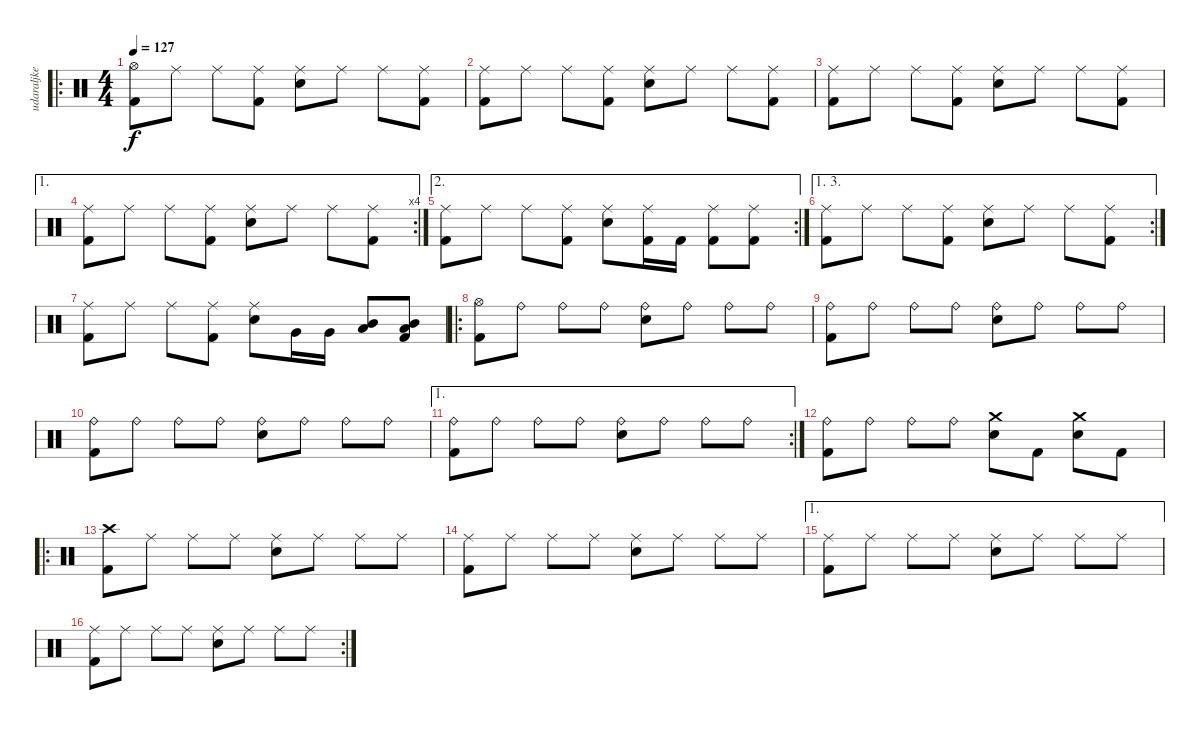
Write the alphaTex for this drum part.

\track ("udaraljke" "udaraljke") {instrument percussion}
\staff {score}
\articulation defaults
\ro
\ts (4 4)
\tempo 127
\clef neutral
\ks c
("Hi-Hat (open)" "Kick (hit) 2").8{dy f} "Ride (middle)".8 "Ride (middle)".8 ("Ride (middle)" "Kick (hit) 2").8 ("Ride (middle)" "Electric Snare (hit)").8 "Ride (middle)".8 "Ride (middle)".8 ("Ride (middle)" "Kick (hit) 2").8 |
("Ride (middle)" "Kick (hit) 2").8 "Ride (middle)".8 "Ride (middle)".8 ("Ride (middle)" "Kick (hit) 2").8 ("Ride (middle)" "Electric Snare (hit)").8 "Ride (middle)".8 "Ride (middle)".8 ("Ride (middle)" "Kick (hit) 2").8 |
("Ride (middle)" "Kick (hit) 2").8 "Ride (middle)".8 "Ride (middle)".8 ("Ride (middle)" "Kick (hit) 2").8 ("Ride (middle)" "Electric Snare (hit)").8 "Ride (middle)".8 "Ride (middle)".8 ("Ride (middle)" "Kick (hit) 2").8 |
\ae 1
\rc 4
("Ride (middle)" "Kick (hit) 2").8 "Ride (middle)".8 "Ride (middle)".8 ("Ride (middle)" "Kick (hit) 2").8 ("Ride (middle)" "Electric Snare (hit)").8 "Ride (middle)".8 "Ride (middle)".8 ("Ride (middle)" "Kick (hit) 2").8 |
\ae 2
\rc 2
("Ride (middle)" "Kick (hit) 2").8 "Ride (middle)".8 "Ride (middle)".8 ("Ride (middle)" "Kick (hit) 2").8 ("Ride (middle)" "Electric Snare (hit)").8 ("Ride (middle)" "Kick (hit) 2").16 "Kick (hit) 2".16 ("Ride (middle)" "Kick (hit) 2").8 ("Ride (middle)" "Kick (hit) 2").8 |
\ae (1 3)
\rc 2
("Ride (middle)" "Kick (hit) 2").8 "Ride (middle)".8 "Ride (middle)".8 ("Ride (middle)" "Kick (hit) 2").8 ("Ride (middle)" "Electric Snare (hit)").8 "Ride (middle)".8 "Ride (middle)".8 ("Ride (middle)" "Kick (hit) 2").8 |
("Ride (middle)" "Kick (hit) 2").8 "Ride (middle)".8 "Ride (middle)".8 ("Ride (middle)" "Kick (hit) 2").8 ("Ride (middle)" "Electric Snare (hit)").8 "Very Low Tom (hit)".16 "Very Low Tom (hit)".16 ("Mid Tom (hit)" "Low Tom (hit)").8 ("Mid Tom (hit)" "Low Tom (hit)" "Kick (hit) 2").8 |
\ro
("Hi-Hat (open)" "Kick (hit) 2").8 "Ride (bell)".8 "Ride (bell)".8 "Ride (bell)".8 ("Ride (bell)" "Electric Snare (hit)").8 "Ride (bell)".8 "Ride (bell)".8 "Ride (bell)".8 |
("Ride (bell)" "Kick (hit) 2").8 "Ride (bell)".8 "Ride (bell)".8 "Ride (bell)".8 ("Ride (bell)" "Electric Snare (hit)").8 "Ride (bell)".8 "Ride (bell)".8 "Ride (bell)".8 |
("Ride (bell)" "Kick (hit) 2").8 "Ride (bell)".8 "Ride (bell)".8 "Ride (bell)".8 ("Ride (bell)" "Electric Snare (hit)").8 "Ride (bell)".8 "Ride (bell)".8 "Ride (bell)".8 |
\ae 1
\rc 2
("Ride (bell)" "Kick (hit) 2").8 "Ride (bell)".8 "Ride (bell)".8 "Ride (bell)".8 ("Ride (bell)" "Electric Snare (hit)").8 "Ride (bell)".8 "Ride (bell)".8 "Ride (bell)".8 |
("Ride (bell)" "Kick (hit) 2").8 "Ride (bell)".8 "Ride (bell)".8 "Ride (bell)".8 ("Crash medium (hit)" "Electric Snare (hit)").8 "Kick (hit) 2".8 ("Crash medium (hit)" "Electric Snare (hit)").8 "Kick (hit) 2".8 |
\ro
("Crash high (hit)" "Kick (hit) 2").8 "Ride (middle)".8 "Ride (middle)".8 "Ride (middle)".8 ("Ride (middle)" "Electric Snare (hit)").8 "Ride (middle)".8 "Ride (middle)".8 "Ride (middle)".8 |
("Ride (middle)" "Kick (hit) 2").8 "Ride (middle)".8 "Ride (middle)".8 "Ride (middle)".8 ("Ride (middle)" "Electric Snare (hit)").8 "Ride (middle)".8 "Ride (middle)".8 "Ride (middle)".8 |
\ae 1
("Ride (middle)" "Kick (hit) 2").8 "Ride (middle)".8 "Ride (middle)".8 "Ride (middle)".8 ("Ride (middle)" "Electric Snare (hit)").8 "Ride (middle)".8 "Ride (middle)".8 "Ride (middle)".8 |
\rc 2
("Ride (middle)" "Kick (hit) 2").8 "Ride (middle)".8 "Ride (middle)".8 "Ride (middle)".8 ("Ride (middle)" "Electric Snare (hit)").8 "Ride (middle)".8 "Ride (middle)".8 "Ride (middle)".8
